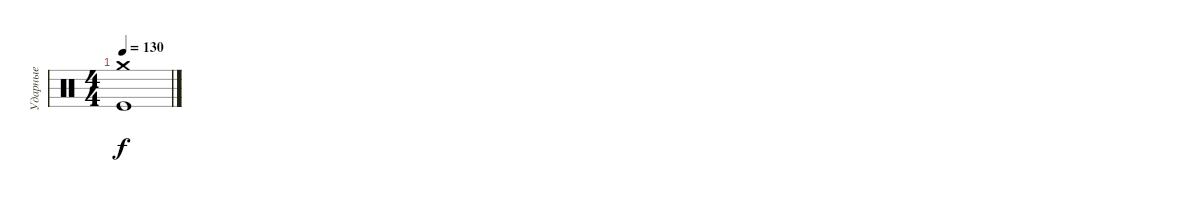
\track ("Ударные" "Ударные") {instrument percussion}
\staff {score}
\articulation defaults
\ts (4 4)
\tempo 130
\clef neutral
\ks c
("Crash medium (hit)" "Kick (hit)").1{dy f}
